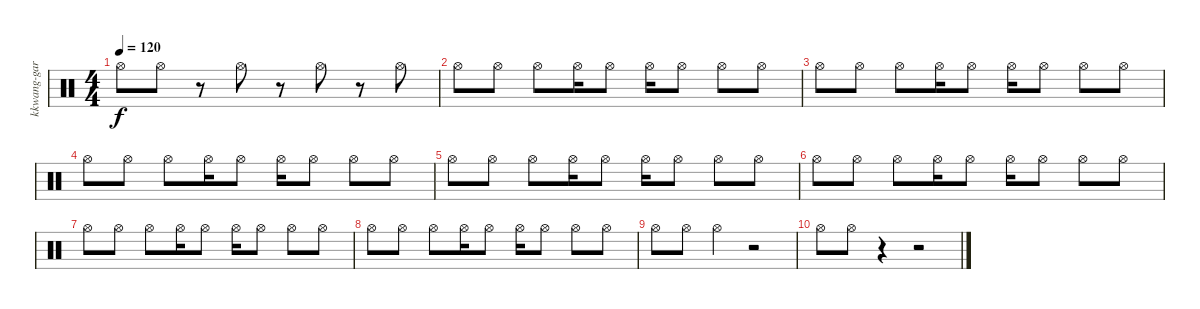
\track ("kkwang-gari" "kkwang-gar") {instrument percussion}
\staff {score}
\articulation defaults
\ts (4 4)
\tempo 120
\clef neutral
\ks c "Hi-Hat (open)".8{dy f} "Hi-Hat (open)".8
r.8 "Hi-Hat (open)".8 r.8 "Hi-Hat (open)".8 r.8 "Hi-Hat (open)".8 |
"Hi-Hat (open)".8 "Hi-Hat (open)".8 "Hi-Hat (open)".8 "Hi-Hat (open)".16 "Hi-Hat (open)".8 "Hi-Hat (open)".16 "Hi-Hat (open)".8 "Hi-Hat (open)".8 "Hi-Hat (open)".8 |
"Hi-Hat (open)".8 "Hi-Hat (open)".8 "Hi-Hat (open)".8 "Hi-Hat (open)".16 "Hi-Hat (open)".8 "Hi-Hat (open)".16 "Hi-Hat (open)".8 "Hi-Hat (open)".8 "Hi-Hat (open)".8 |
"Hi-Hat (open)".8 "Hi-Hat (open)".8 "Hi-Hat (open)".8 "Hi-Hat (open)".16 "Hi-Hat (open)".8 "Hi-Hat (open)".16 "Hi-Hat (open)".8 "Hi-Hat (open)".8 "Hi-Hat (open)".8 |
"Hi-Hat (open)".8 "Hi-Hat (open)".8 "Hi-Hat (open)".8 "Hi-Hat (open)".16 "Hi-Hat (open)".8 "Hi-Hat (open)".16 "Hi-Hat (open)".8 "Hi-Hat (open)".8 "Hi-Hat (open)".8 |
"Hi-Hat (open)".8 "Hi-Hat (open)".8 "Hi-Hat (open)".8 "Hi-Hat (open)".16 "Hi-Hat (open)".8 "Hi-Hat (open)".16 "Hi-Hat (open)".8 "Hi-Hat (open)".8 "Hi-Hat (open)".8 |
"Hi-Hat (open)".8 "Hi-Hat (open)".8 "Hi-Hat (open)".8 "Hi-Hat (open)".16 "Hi-Hat (open)".8 "Hi-Hat (open)".16 "Hi-Hat (open)".8 "Hi-Hat (open)".8 "Hi-Hat (open)".8 |
"Hi-Hat (open)".8 "Hi-Hat (open)".8 "Hi-Hat (open)".8 "Hi-Hat (open)".16 "Hi-Hat (open)".8 "Hi-Hat (open)".16 "Hi-Hat (open)".8 "Hi-Hat (open)".8 "Hi-Hat (open)".8 |
"Hi-Hat (open)".8 "Hi-Hat (open)".8 "Hi-Hat (open)".4 r.2 |
"Hi-Hat (open)".8 "Hi-Hat (open)".8 r.4 r.2
